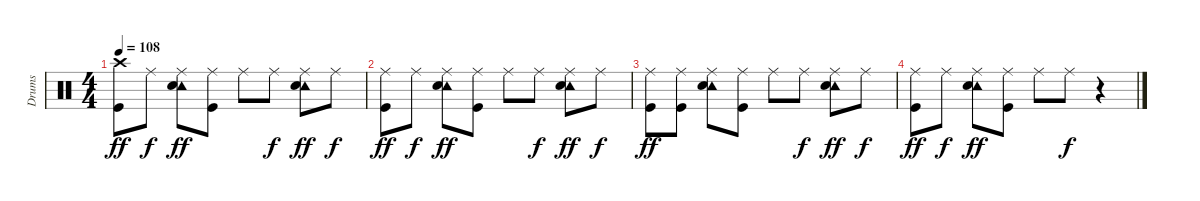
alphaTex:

\track ("Drums" "Drums") {instrument percussion}
\staff {score}
\articulation defaults
\ts (4 4)
\tempo 108
\clef neutral
\ks c
("Crash high (hit)" "Kick (hit)").8{dy ff} "Ride (middle)".8{dy f} ("Ride (middle)" "Tambourine (hit)" "Electric Snare (hit)").8{dy ff} ("Ride (middle)" "Kick (hit)").8 "Ride (middle)".8 "Ride (middle)".8{dy f} ("Ride (middle)" "Tambourine (hit)" "Electric Snare (hit)").8{dy ff} "Ride (middle)".8{dy f} |
("Ride (middle)" "Kick (hit)").8{dy ff} "Ride (middle)".8{dy f} ("Ride (middle)" "Tambourine (hit)" "Electric Snare (hit)").8{dy ff} ("Ride (middle)" "Kick (hit)").8 "Ride (middle)".8 "Ride (middle)".8{dy f} ("Ride (middle)" "Tambourine (hit)" "Electric Snare (hit)").8{dy ff} "Ride (middle)".8{dy f} |
("Ride (middle)" "Kick (hit)").8{dy ff} ("Ride (middle)" "Kick (hit)").8 ("Ride (middle)" "Tambourine (hit)" "Electric Snare (hit)").8 ("Ride (middle)" "Kick (hit)").8 "Ride (middle)".8 "Ride (middle)".8{dy f} ("Ride (middle)" "Tambourine (hit)" "Electric Snare (hit)").8{dy ff} "Ride (middle)".8{dy f} |
("Ride (middle)" "Kick (hit)").8{dy ff} "Ride (middle)".8{dy f} ("Ride (middle)" "Tambourine (hit)" "Electric Snare (hit)").8{dy ff} ("Ride (middle)" "Kick (hit)").8 "Ride (middle)".8 "Ride (middle)".8{dy f} r.4
